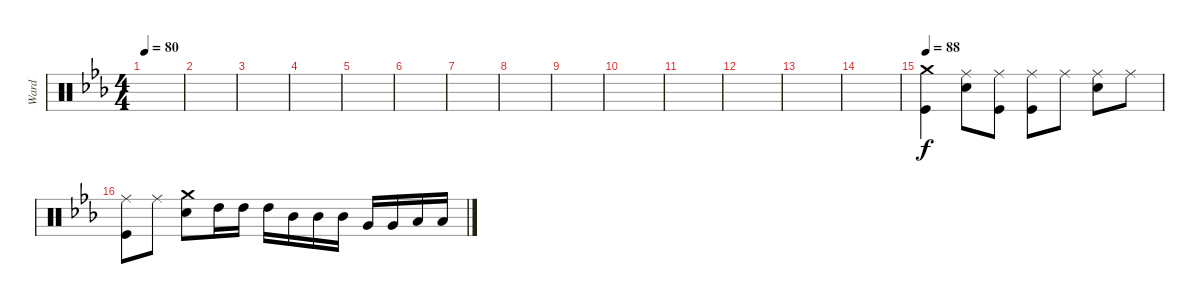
\track ("Ward" "Ward") {instrument percussion}
\staff {score}
\articulation defaults
\ts (4 4)
\tempo 80
\clef neutral
\ks cminor
|
|
|
|
|
|
|
|
|
|
|
|
|
|
\tempo 88
("Crash medium (hit)" "Kick (hit)").4 ("Ride (middle)" "Snare (hit) 2").8 ("Ride (middle)" "Kick (hit)").8 ("Ride (middle)" "Kick (hit)").8 "Ride (middle)".8 ("Ride (middle)" "Snare (hit) 2").8 "Ride (middle)".8 |
("Ride (middle)" "Kick (hit)").8 "Ride (middle)".8 ("Crash medium (hit)" "Snare (hit) 2").8 "High Tom (hit)".16 "High Tom (hit)".16 "High Tom (hit)".16 "Mid Tom (hit)".16 "Mid Tom (hit)".16 "Mid Tom (hit)".16 "Very Low Tom (hit)".16 "Very Low Tom (hit)".16 "Low Floor Tom (hit)".16 "Low Floor Tom (hit)".16
